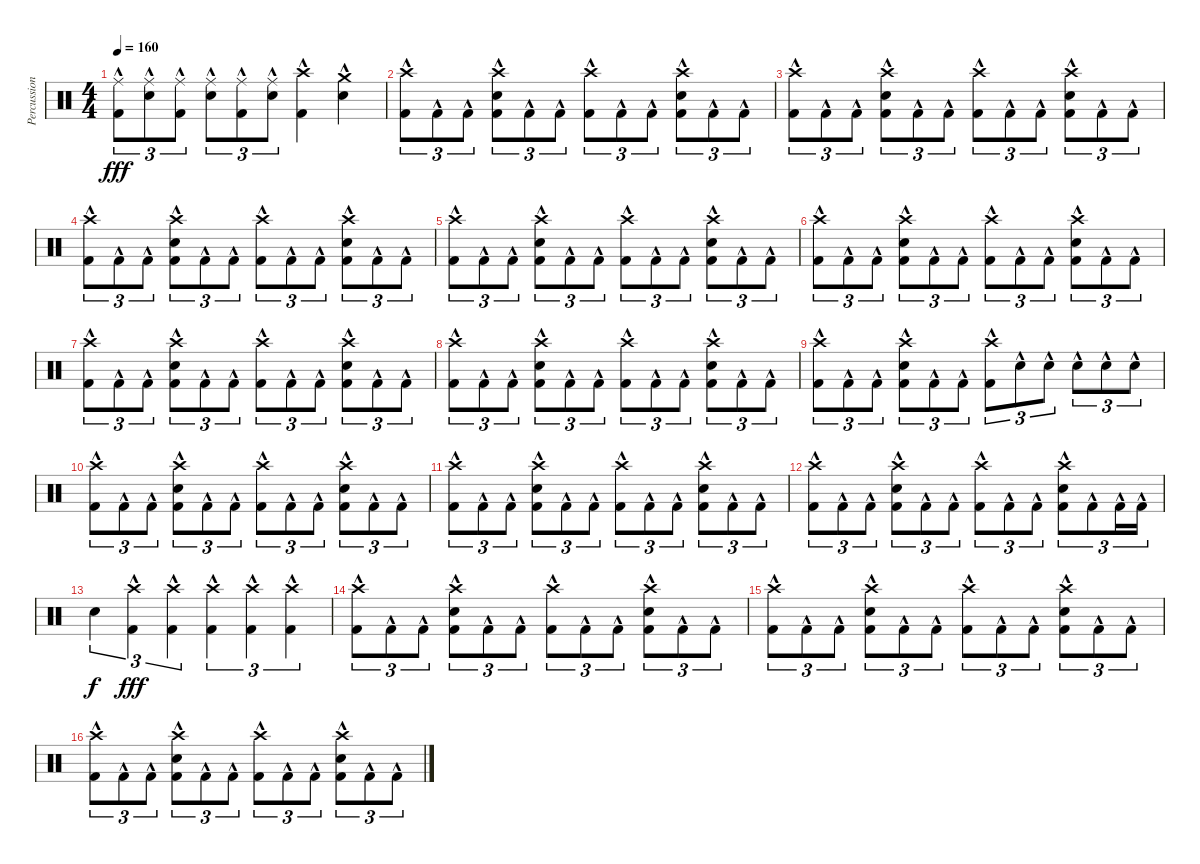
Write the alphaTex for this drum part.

\track ("Percussion" "Percussion") {instrument percussion}
\staff {score}
\articulation defaults
\ts (4 4)
\tempo 160
\clef neutral
\ks c
("Ride (middle)" "Kick (hit) 2"{hac}).8{tu (3 2) dy fff} ("Ride (middle)" "Electric Snare (hit)"{hac}).8{tu (3 2)} ("Ride (middle)" "Kick (hit) 2"{hac}).8{tu (3 2)} ("Ride (middle)" "Electric Snare (hit)"{hac}).8{tu (3 2)} ("Ride (middle)" "Kick (hit) 2"{hac}).8{tu (3 2)} ("Ride (middle)" "Electric Snare (hit)"{hac}).8{tu (3 2)} ("Crash high (hit)" "Kick (hit) 2"{hac}).4 ("Crash medium (hit)" "Electric Snare (hit)"{hac}).4 |
("Crash high (hit)" "Kick (hit) 2"{hac}).8{tu (3 2)} "Kick (hit) 2"{hac}.8{tu (3 2)} "Kick (hit) 2"{hac}.8{tu (3 2)} ("Crash high (hit)" "Electric Snare (hit)" "Kick (hit) 2"{hac}).8{tu (3 2)} "Kick (hit) 2"{hac}.8{tu (3 2)} "Kick (hit) 2"{hac}.8{tu (3 2)} ("Crash high (hit)" "Kick (hit) 2"{hac}).8{tu (3 2)} "Kick (hit) 2"{hac}.8{tu (3 2)} "Kick (hit) 2"{hac}.8{tu (3 2)} ("Crash high (hit)" "Electric Snare (hit)" "Kick (hit) 2"{hac}).8{tu (3 2)} "Kick (hit) 2"{hac}.8{tu (3 2)} "Kick (hit) 2"{hac}.8{tu (3 2)} |
("Crash high (hit)" "Kick (hit) 2"{hac}).8{tu (3 2)} "Kick (hit) 2"{hac}.8{tu (3 2)} "Kick (hit) 2"{hac}.8{tu (3 2)} ("Crash high (hit)" "Electric Snare (hit)" "Kick (hit) 2"{hac}).8{tu (3 2)} "Kick (hit) 2"{hac}.8{tu (3 2)} "Kick (hit) 2"{hac}.8{tu (3 2)} ("Crash high (hit)" "Kick (hit) 2"{hac}).8{tu (3 2)} "Kick (hit) 2"{hac}.8{tu (3 2)} "Kick (hit) 2"{hac}.8{tu (3 2)} ("Crash high (hit)" "Electric Snare (hit)" "Kick (hit) 2"{hac}).8{tu (3 2)} "Kick (hit) 2"{hac}.8{tu (3 2)} "Kick (hit) 2"{hac}.8{tu (3 2)} |
("Crash high (hit)" "Kick (hit) 2"{hac}).8{tu (3 2)} "Kick (hit) 2"{hac}.8{tu (3 2)} "Kick (hit) 2"{hac}.8{tu (3 2)} ("Crash high (hit)" "Electric Snare (hit)" "Kick (hit) 2"{hac}).8{tu (3 2)} "Kick (hit) 2"{hac}.8{tu (3 2)} "Kick (hit) 2"{hac}.8{tu (3 2)} ("Crash high (hit)" "Kick (hit) 2"{hac}).8{tu (3 2)} "Kick (hit) 2"{hac}.8{tu (3 2)} "Kick (hit) 2"{hac}.8{tu (3 2)} ("Crash high (hit)" "Electric Snare (hit)" "Kick (hit) 2"{hac}).8{tu (3 2)} "Kick (hit) 2"{hac}.8{tu (3 2)} "Kick (hit) 2"{hac}.8{tu (3 2)} |
("Crash high (hit)" "Kick (hit) 2"{hac}).8{tu (3 2)} "Kick (hit) 2"{hac}.8{tu (3 2)} "Kick (hit) 2"{hac}.8{tu (3 2)} ("Crash high (hit)" "Electric Snare (hit)" "Kick (hit) 2"{hac}).8{tu (3 2)} "Kick (hit) 2"{hac}.8{tu (3 2)} "Kick (hit) 2"{hac}.8{tu (3 2)} ("Crash high (hit)" "Kick (hit) 2"{hac}).8{tu (3 2)} "Kick (hit) 2"{hac}.8{tu (3 2)} "Kick (hit) 2"{hac}.8{tu (3 2)} ("Crash high (hit)" "Electric Snare (hit)" "Kick (hit) 2"{hac}).8{tu (3 2)} "Kick (hit) 2"{hac}.8{tu (3 2)} "Kick (hit) 2"{hac}.8{tu (3 2)} |
("Crash high (hit)" "Kick (hit) 2"{hac}).8{tu (3 2)} "Kick (hit) 2"{hac}.8{tu (3 2)} "Kick (hit) 2"{hac}.8{tu (3 2)} ("Crash high (hit)" "Electric Snare (hit)" "Kick (hit) 2"{hac}).8{tu (3 2)} "Kick (hit) 2"{hac}.8{tu (3 2)} "Kick (hit) 2"{hac}.8{tu (3 2)} ("Crash high (hit)" "Kick (hit) 2"{hac}).8{tu (3 2)} "Kick (hit) 2"{hac}.8{tu (3 2)} "Kick (hit) 2"{hac}.8{tu (3 2)} ("Crash high (hit)" "Electric Snare (hit)" "Kick (hit) 2"{hac}).8{tu (3 2)} "Kick (hit) 2"{hac}.8{tu (3 2)} "Kick (hit) 2"{hac}.8{tu (3 2)} |
("Crash high (hit)" "Kick (hit) 2"{hac}).8{tu (3 2)} "Kick (hit) 2"{hac}.8{tu (3 2)} "Kick (hit) 2"{hac}.8{tu (3 2)} ("Crash high (hit)" "Electric Snare (hit)" "Kick (hit) 2"{hac}).8{tu (3 2)} "Kick (hit) 2"{hac}.8{tu (3 2)} "Kick (hit) 2"{hac}.8{tu (3 2)} ("Crash high (hit)" "Kick (hit) 2"{hac}).8{tu (3 2)} "Kick (hit) 2"{hac}.8{tu (3 2)} "Kick (hit) 2"{hac}.8{tu (3 2)} ("Crash high (hit)" "Electric Snare (hit)" "Kick (hit) 2"{hac}).8{tu (3 2)} "Kick (hit) 2"{hac}.8{tu (3 2)} "Kick (hit) 2"{hac}.8{tu (3 2)} |
("Crash high (hit)" "Kick (hit) 2"{hac}).8{tu (3 2)} "Kick (hit) 2"{hac}.8{tu (3 2)} "Kick (hit) 2"{hac}.8{tu (3 2)} ("Crash high (hit)" "Electric Snare (hit)" "Kick (hit) 2"{hac}).8{tu (3 2)} "Kick (hit) 2"{hac}.8{tu (3 2)} "Kick (hit) 2"{hac}.8{tu (3 2)} ("Crash high (hit)" "Kick (hit) 2"{hac}).8{tu (3 2)} "Kick (hit) 2"{hac}.8{tu (3 2)} "Kick (hit) 2"{hac}.8{tu (3 2)} ("Crash high (hit)" "Electric Snare (hit)" "Kick (hit) 2"{hac}).8{tu (3 2)} "Kick (hit) 2"{hac}.8{tu (3 2)} "Kick (hit) 2"{hac}.8{tu (3 2)} |
("Crash high (hit)" "Kick (hit) 2"{hac}).8{tu (3 2)} "Kick (hit) 2"{hac}.8{tu (3 2)} "Kick (hit) 2"{hac}.8{tu (3 2)} ("Crash high (hit)" "Electric Snare (hit)" "Kick (hit) 2"{hac}).8{tu (3 2)} "Kick (hit) 2"{hac}.8{tu (3 2)} "Kick (hit) 2"{hac}.8{tu (3 2)} ("Crash high (hit)" "Kick (hit) 2"{hac}).8{tu (3 2)} "Electric Snare (hit)"{hac}.8{tu (3 2)} "Electric Snare (hit)"{hac}.8{tu (3 2)} "Electric Snare (hit)"{hac}.8{tu (3 2)} "Electric Snare (hit)"{hac}.8{tu (3 2)} "Electric Snare (hit)"{hac}.8{tu (3 2)} |
("Crash high (hit)" "Kick (hit) 2"{hac}).8{tu (3 2)} "Kick (hit) 2"{hac}.8{tu (3 2)} "Kick (hit) 2"{hac}.8{tu (3 2)} ("Crash high (hit)" "Electric Snare (hit)" "Kick (hit) 2"{hac}).8{tu (3 2)} "Kick (hit) 2"{hac}.8{tu (3 2)} "Kick (hit) 2"{hac}.8{tu (3 2)} ("Crash high (hit)" "Kick (hit) 2"{hac}).8{tu (3 2)} "Kick (hit) 2"{hac}.8{tu (3 2)} "Kick (hit) 2"{hac}.8{tu (3 2)} ("Crash high (hit)" "Electric Snare (hit)" "Kick (hit) 2"{hac}).8{tu (3 2)} "Kick (hit) 2"{hac}.8{tu (3 2)} "Kick (hit) 2"{hac}.8{tu (3 2)} |
("Crash high (hit)" "Kick (hit) 2"{hac}).8{tu (3 2)} "Kick (hit) 2"{hac}.8{tu (3 2)} "Kick (hit) 2"{hac}.8{tu (3 2)} ("Crash high (hit)" "Electric Snare (hit)" "Kick (hit) 2"{hac}).8{tu (3 2)} "Kick (hit) 2"{hac}.8{tu (3 2)} "Kick (hit) 2"{hac}.8{tu (3 2)} ("Crash high (hit)" "Kick (hit) 2"{hac}).8{tu (3 2)} "Kick (hit) 2"{hac}.8{tu (3 2)} "Kick (hit) 2"{hac}.8{tu (3 2)} ("Crash high (hit)" "Electric Snare (hit)" "Kick (hit) 2"{hac}).8{tu (3 2)} "Kick (hit) 2"{hac}.8{tu (3 2)} "Kick (hit) 2"{hac}.8{tu (3 2)} |
("Crash high (hit)" "Kick (hit) 2"{hac}).8{tu (3 2)} "Kick (hit) 2"{hac}.8{tu (3 2)} "Kick (hit) 2"{hac}.8{tu (3 2)} ("Crash high (hit)" "Electric Snare (hit)" "Kick (hit) 2"{hac}).8{tu (3 2)} "Kick (hit) 2"{hac}.8{tu (3 2)} "Kick (hit) 2"{hac}.8{tu (3 2)} ("Crash high (hit)" "Kick (hit) 2"{hac}).8{tu (3 2)} "Kick (hit) 2"{hac}.8{tu (3 2)} "Kick (hit) 2"{hac}.8{tu (3 2)} ("Crash high (hit)" "Electric Snare (hit)" "Kick (hit) 2"{hac}).8{tu (3 2)} "Kick (hit) 2"{hac}.8{tu (3 2)} "Kick (hit) 2"{hac}.16{tu (3 2)} "Kick (hit) 2"{hac}.16{tu (3 2)} |
"Electric Snare (hit)".4{tu (3 2) dy f} ("Crash high (hit)" "Kick (hit) 2"{hac}).4{tu (3 2) dy fff} ("Crash high (hit)" "Kick (hit) 2"{hac}).4{tu (3 2)} ("Crash high (hit)" "Kick (hit) 2"{hac}).4{tu (3 2)} ("Crash high (hit)" "Kick (hit) 2"{hac}).4{tu (3 2)} ("Crash high (hit)" "Kick (hit) 2"{hac}).4{tu (3 2)} |
("Crash high (hit)" "Kick (hit) 2"{hac}).8{tu (3 2)} "Kick (hit) 2"{hac}.8{tu (3 2)} "Kick (hit) 2"{hac}.8{tu (3 2)} ("Crash high (hit)" "Electric Snare (hit)" "Kick (hit) 2"{hac}).8{tu (3 2)} "Kick (hit) 2"{hac}.8{tu (3 2)} "Kick (hit) 2"{hac}.8{tu (3 2)} ("Crash high (hit)" "Kick (hit) 2"{hac}).8{tu (3 2)} "Kick (hit) 2"{hac}.8{tu (3 2)} "Kick (hit) 2"{hac}.8{tu (3 2)} ("Crash high (hit)" "Electric Snare (hit)" "Kick (hit) 2"{hac}).8{tu (3 2)} "Kick (hit) 2"{hac}.8{tu (3 2)} "Kick (hit) 2"{hac}.8{tu (3 2)} |
("Crash high (hit)" "Kick (hit) 2"{hac}).8{tu (3 2)} "Kick (hit) 2"{hac}.8{tu (3 2)} "Kick (hit) 2"{hac}.8{tu (3 2)} ("Crash high (hit)" "Electric Snare (hit)" "Kick (hit) 2"{hac}).8{tu (3 2)} "Kick (hit) 2"{hac}.8{tu (3 2)} "Kick (hit) 2"{hac}.8{tu (3 2)} ("Crash high (hit)" "Kick (hit) 2"{hac}).8{tu (3 2)} "Kick (hit) 2"{hac}.8{tu (3 2)} "Kick (hit) 2"{hac}.8{tu (3 2)} ("Crash high (hit)" "Electric Snare (hit)" "Kick (hit) 2"{hac}).8{tu (3 2)} "Kick (hit) 2"{hac}.8{tu (3 2)} "Kick (hit) 2"{hac}.8{tu (3 2)} |
("Crash high (hit)" "Kick (hit) 2"{hac}).8{tu (3 2)} "Kick (hit) 2"{hac}.8{tu (3 2)} "Kick (hit) 2"{hac}.8{tu (3 2)} ("Crash high (hit)" "Electric Snare (hit)" "Kick (hit) 2"{hac}).8{tu (3 2)} "Kick (hit) 2"{hac}.8{tu (3 2)} "Kick (hit) 2"{hac}.8{tu (3 2)} ("Crash high (hit)" "Kick (hit) 2"{hac}).8{tu (3 2)} "Kick (hit) 2"{hac}.8{tu (3 2)} "Kick (hit) 2"{hac}.8{tu (3 2)} ("Crash high (hit)" "Electric Snare (hit)" "Kick (hit) 2"{hac}).8{tu (3 2)} "Kick (hit) 2"{hac}.8{tu (3 2)} "Kick (hit) 2"{hac}.8{tu (3 2)}
